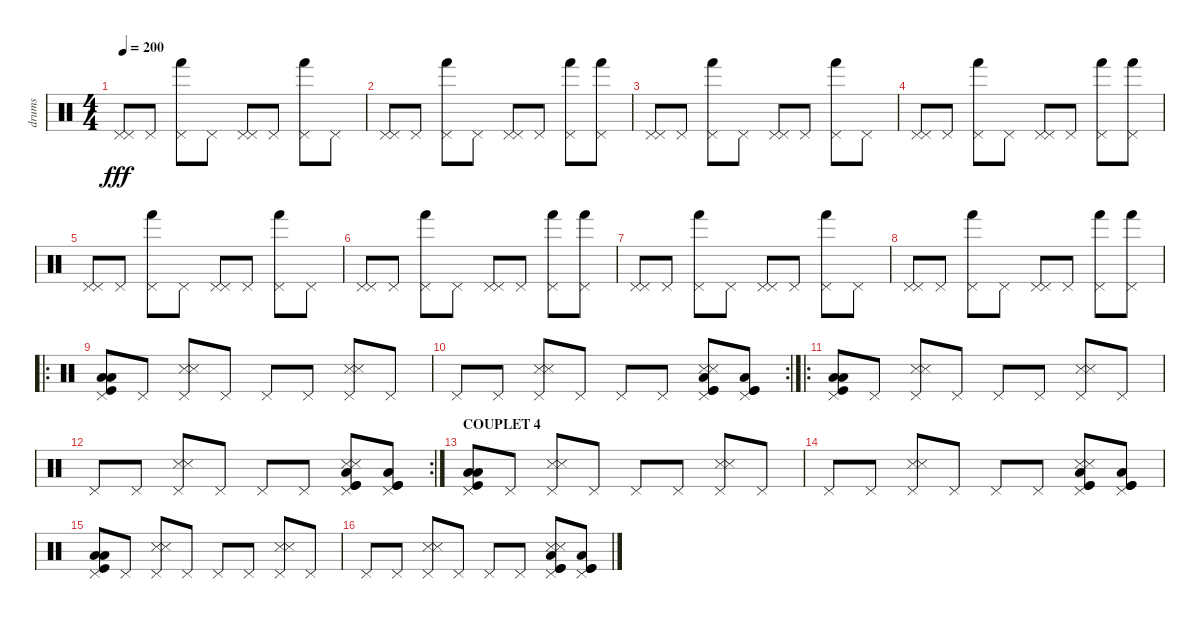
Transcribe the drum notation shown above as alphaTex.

\track ("drums" "drums") {instrument percussion}
\staff {score}
\articulation defaults
\ts (4 4)
\tempo 200
\clef neutral
\ks c
("Pedal Hi-Hat (hit)" "Pedal Hi-Hat (hit)").8{dy fff} "Pedal Hi-Hat (hit)".8 ("Pedal Hi-Hat (hit)" "Hand (hit)").8 "Pedal Hi-Hat (hit)".8 ("Pedal Hi-Hat (hit)" "Pedal Hi-Hat (hit)").8 "Pedal Hi-Hat (hit)".8 ("Pedal Hi-Hat (hit)" "Hand (hit)").8 "Pedal Hi-Hat (hit)".8 |
("Pedal Hi-Hat (hit)" "Pedal Hi-Hat (hit)").8 "Pedal Hi-Hat (hit)".8 ("Pedal Hi-Hat (hit)" "Hand (hit)").8 "Pedal Hi-Hat (hit)".8 ("Pedal Hi-Hat (hit)" "Pedal Hi-Hat (hit)").8 "Pedal Hi-Hat (hit)".8 ("Pedal Hi-Hat (hit)" "Hand (hit)").8 ("Pedal Hi-Hat (hit)" "Hand (hit)").8 |
("Pedal Hi-Hat (hit)" "Pedal Hi-Hat (hit)").8 "Pedal Hi-Hat (hit)".8 ("Pedal Hi-Hat (hit)" "Hand (hit)").8 "Pedal Hi-Hat (hit)".8 ("Pedal Hi-Hat (hit)" "Pedal Hi-Hat (hit)").8 "Pedal Hi-Hat (hit)".8 ("Pedal Hi-Hat (hit)" "Hand (hit)").8 "Pedal Hi-Hat (hit)".8 |
("Pedal Hi-Hat (hit)" "Pedal Hi-Hat (hit)").8 "Pedal Hi-Hat (hit)".8 ("Pedal Hi-Hat (hit)" "Hand (hit)").8 "Pedal Hi-Hat (hit)".8 ("Pedal Hi-Hat (hit)" "Pedal Hi-Hat (hit)").8 "Pedal Hi-Hat (hit)".8 ("Pedal Hi-Hat (hit)" "Hand (hit)").8 ("Pedal Hi-Hat (hit)" "Hand (hit)").8 |
("Pedal Hi-Hat (hit)" "Pedal Hi-Hat (hit)").8 "Pedal Hi-Hat (hit)".8 ("Pedal Hi-Hat (hit)" "Hand (hit)").8 "Pedal Hi-Hat (hit)".8 ("Pedal Hi-Hat (hit)" "Pedal Hi-Hat (hit)").8 "Pedal Hi-Hat (hit)".8 ("Pedal Hi-Hat (hit)" "Hand (hit)").8 "Pedal Hi-Hat (hit)".8 |
("Pedal Hi-Hat (hit)" "Pedal Hi-Hat (hit)").8 "Pedal Hi-Hat (hit)".8 ("Pedal Hi-Hat (hit)" "Hand (hit)").8 "Pedal Hi-Hat (hit)".8 ("Pedal Hi-Hat (hit)" "Pedal Hi-Hat (hit)").8 "Pedal Hi-Hat (hit)".8 ("Pedal Hi-Hat (hit)" "Hand (hit)").8 ("Pedal Hi-Hat (hit)" "Hand (hit)").8 |
("Pedal Hi-Hat (hit)" "Pedal Hi-Hat (hit)").8 "Pedal Hi-Hat (hit)".8 ("Pedal Hi-Hat (hit)" "Hand (hit)").8 "Pedal Hi-Hat (hit)".8 ("Pedal Hi-Hat (hit)" "Pedal Hi-Hat (hit)").8 "Pedal Hi-Hat (hit)".8 ("Pedal Hi-Hat (hit)" "Hand (hit)").8 "Pedal Hi-Hat (hit)".8 |
("Pedal Hi-Hat (hit)" "Pedal Hi-Hat (hit)").8 "Pedal Hi-Hat (hit)".8 ("Pedal Hi-Hat (hit)" "Hand (hit)").8 "Pedal Hi-Hat (hit)".8 ("Pedal Hi-Hat (hit)" "Pedal Hi-Hat (hit)").8 "Pedal Hi-Hat (hit)".8 ("Pedal Hi-Hat (hit)" "Hand (hit)").8 ("Pedal Hi-Hat (hit)" "Hand (hit)").8 |
\ro
("Pedal Hi-Hat (hit)" "Low Floor Tom (hit)" "Low Floor Tom (hit)" "Kick (hit)").8 "Pedal Hi-Hat (hit)".8 ("Pedal Hi-Hat (hit)" "Snare (side stick) 3" "Snare (side stick) 3").8 "Pedal Hi-Hat (hit)".8 "Pedal Hi-Hat (hit)".8 "Pedal Hi-Hat (hit)".8 ("Pedal Hi-Hat (hit)" "Snare (side stick) 3" "Snare (side stick) 3").8 "Pedal Hi-Hat (hit)".8 |
\rc 2 "Pedal Hi-Hat (hit)".8 "Pedal Hi-Hat (hit)".8
("Pedal Hi-Hat (hit)" "Snare (side stick) 3" "Snare (side stick) 3").8 "Pedal Hi-Hat (hit)".8 "Pedal Hi-Hat (hit)".8 "Pedal Hi-Hat (hit)".8 ("Pedal Hi-Hat (hit)" "Snare (side stick) 3" "Snare (side stick) 3" "Kick (hit)" "Kick (hit)" "Low Floor Tom (hit)").8 ("Pedal Hi-Hat (hit)" "Kick (hit)" "Kick (hit)" "Low Floor Tom (hit)").8 |
\ro
("Pedal Hi-Hat (hit)" "Low Floor Tom (hit)" "Low Floor Tom (hit)" "Kick (hit)").8 "Pedal Hi-Hat (hit)".8 ("Pedal Hi-Hat (hit)" "Snare (side stick) 3" "Snare (side stick) 3").8 "Pedal Hi-Hat (hit)".8 "Pedal Hi-Hat (hit)".8 "Pedal Hi-Hat (hit)".8 ("Pedal Hi-Hat (hit)" "Snare (side stick) 3" "Snare (side stick) 3").8 "Pedal Hi-Hat (hit)".8 |
\rc 2 "Pedal Hi-Hat (hit)".8 "Pedal Hi-Hat (hit)".8
("Pedal Hi-Hat (hit)" "Snare (side stick) 3" "Snare (side stick) 3").8 "Pedal Hi-Hat (hit)".8 "Pedal Hi-Hat (hit)".8 "Pedal Hi-Hat (hit)".8 ("Pedal Hi-Hat (hit)" "Snare (side stick) 3" "Snare (side stick) 3" "Kick (hit)" "Kick (hit)" "Low Floor Tom (hit)").8 ("Pedal Hi-Hat (hit)" "Kick (hit)" "Kick (hit)" "Low Floor Tom (hit)").8 |
\section ("" "COUPLET 4")
("Pedal Hi-Hat (hit)" "Low Floor Tom (hit)" "Low Floor Tom (hit)" "Kick (hit)").8 "Pedal Hi-Hat (hit)".8 ("Pedal Hi-Hat (hit)" "Snare (side stick) 3" "Snare (side stick) 3").8 "Pedal Hi-Hat (hit)".8 "Pedal Hi-Hat (hit)".8 "Pedal Hi-Hat (hit)".8 ("Pedal Hi-Hat (hit)" "Snare (side stick) 3" "Snare (side stick) 3").8 "Pedal Hi-Hat (hit)".8 |
"Pedal Hi-Hat (hit)".8 "Pedal Hi-Hat (hit)".8 ("Pedal Hi-Hat (hit)" "Snare (side stick) 3" "Snare (side stick) 3").8 "Pedal Hi-Hat (hit)".8 "Pedal Hi-Hat (hit)".8 "Pedal Hi-Hat (hit)".8 ("Pedal Hi-Hat (hit)" "Snare (side stick) 3" "Snare (side stick) 3" "Kick (hit)" "Kick (hit)" "Low Floor Tom (hit)").8 ("Pedal Hi-Hat (hit)" "Kick (hit)" "Kick (hit)" "Low Floor Tom (hit)").8 |
("Pedal Hi-Hat (hit)" "Low Floor Tom (hit)" "Low Floor Tom (hit)" "Kick (hit)").8 "Pedal Hi-Hat (hit)".8 ("Pedal Hi-Hat (hit)" "Snare (side stick) 3" "Snare (side stick) 3").8 "Pedal Hi-Hat (hit)".8 "Pedal Hi-Hat (hit)".8 "Pedal Hi-Hat (hit)".8 ("Pedal Hi-Hat (hit)" "Snare (side stick) 3" "Snare (side stick) 3").8 "Pedal Hi-Hat (hit)".8 |
"Pedal Hi-Hat (hit)".8 "Pedal Hi-Hat (hit)".8 ("Pedal Hi-Hat (hit)" "Snare (side stick) 3" "Snare (side stick) 3").8 "Pedal Hi-Hat (hit)".8 "Pedal Hi-Hat (hit)".8 "Pedal Hi-Hat (hit)".8 ("Pedal Hi-Hat (hit)" "Snare (side stick) 3" "Snare (side stick) 3" "Kick (hit)" "Kick (hit)" "Low Floor Tom (hit)").8 ("Pedal Hi-Hat (hit)" "Kick (hit)" "Kick (hit)" "Low Floor Tom (hit)").8
